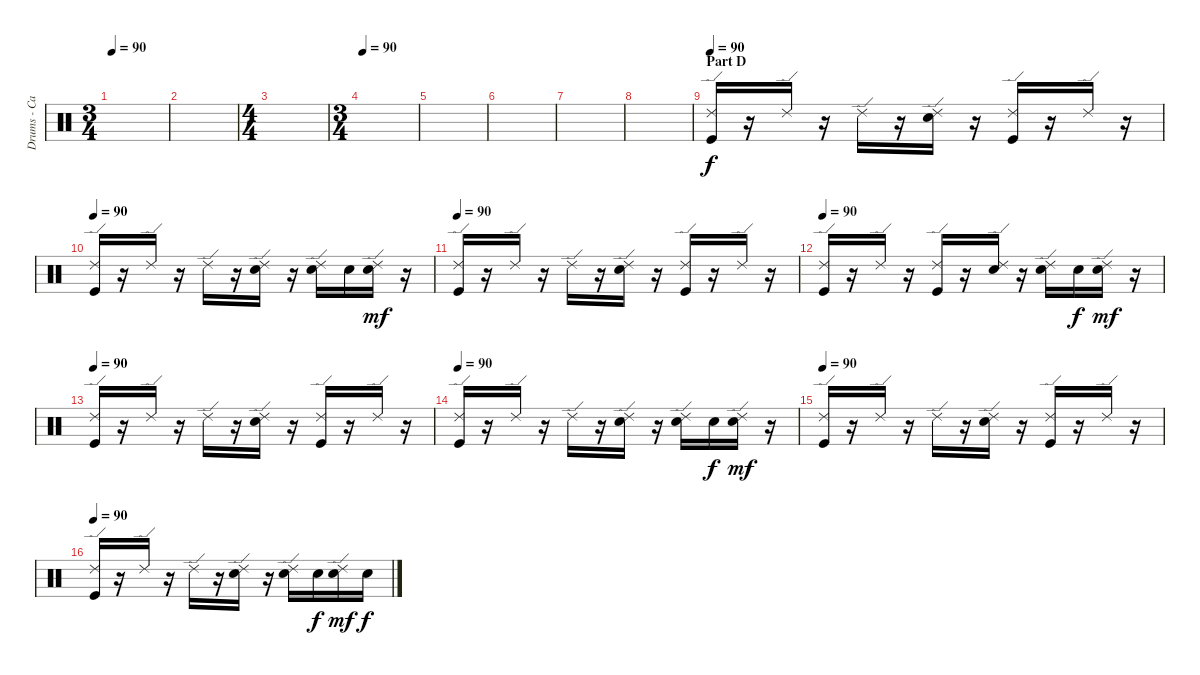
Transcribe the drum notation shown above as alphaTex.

\track ("Drums - Carla Azar" "Drums - Ca") {instrument percussion}
\staff {score}
\articulation defaults
\ts (3 4)
\tempo 90
\clef neutral
\ks c
|
|
\ts (4 4)
|
\ts (3 4)
\tempo 90
|
|
|
|
|
\section ("" "Part D")
\tempo 90
("Ride (edge) 2" "Kick (hit)").16 r.16 "Ride (edge) 2".16 r.16 "Ride (edge) 2".16 r.16 ("Ride (edge) 2" "Snare (hit) 2").16 r.16 ("Ride (edge) 2" "Kick (hit)").16 r.16 "Ride (edge) 2".16 r.16 |
\tempo 90
("Ride (edge) 2" "Kick (hit)").16 r.16 "Ride (edge) 2".16 r.16 "Ride (edge) 2".16 r.16 ("Ride (edge) 2" "Snare (hit) 2").16 r.16 ("Ride (edge) 2" "Snare (hit) 2").16 "Snare (hit) 2".16{dy f} ("Ride (edge) 2" "Snare (hit) 2").16{dy mf} r.16 |
\tempo 90
("Ride (edge) 2" "Kick (hit)").16 r.16 "Ride (edge) 2".16 r.16 "Ride (edge) 2".16 r.16 ("Ride (edge) 2" "Snare (hit) 2").16 r.16 ("Ride (edge) 2" "Kick (hit)").16 r.16 "Ride (edge) 2".16 r.16 |
\tempo 90
("Ride (edge) 2" "Kick (hit)").16 r.16 "Ride (edge) 2".16 r.16 ("Ride (edge) 2" "Kick (hit)").16 r.16 ("Ride (edge) 2" "Snare (hit) 2").16 r.16 ("Ride (edge) 2" "Snare (hit) 2").16 "Snare (hit) 2".16{dy f} ("Ride (edge) 2" "Snare (hit) 2").16{dy mf} r.16 |
\tempo 90
("Ride (edge) 2" "Kick (hit)").16 r.16 "Ride (edge) 2".16 r.16 "Ride (edge) 2".16 r.16 ("Ride (edge) 2" "Snare (hit) 2").16 r.16 ("Ride (edge) 2" "Kick (hit)").16 r.16 "Ride (edge) 2".16 r.16 |
\tempo 90
("Ride (edge) 2" "Kick (hit)").16 r.16 "Ride (edge) 2".16 r.16 "Ride (edge) 2".16 r.16 ("Ride (edge) 2" "Snare (hit) 2").16 r.16 ("Ride (edge) 2" "Snare (hit) 2").16 "Snare (hit) 2".16{dy f} ("Ride (edge) 2" "Snare (hit) 2").16{dy mf} r.16 |
\tempo 90
("Ride (edge) 2" "Kick (hit)").16 r.16 "Ride (edge) 2".16 r.16 "Ride (edge) 2".16 r.16 ("Ride (edge) 2" "Snare (hit) 2").16 r.16 ("Ride (edge) 2" "Kick (hit)").16 r.16 "Ride (edge) 2".16 r.16 |
\tempo 90
("Ride (edge) 2" "Kick (hit)").16 r.16 "Ride (edge) 2".16 r.16 "Ride (edge) 2".16 r.16 ("Ride (edge) 2" "Snare (hit) 2").16 r.16 ("Ride (edge) 2" "Snare (hit) 2").16 "Snare (hit) 2".16{dy f} ("Ride (edge) 2" "Snare (hit) 2").16{dy mf} "Snare (hit) 2".16{dy f}
